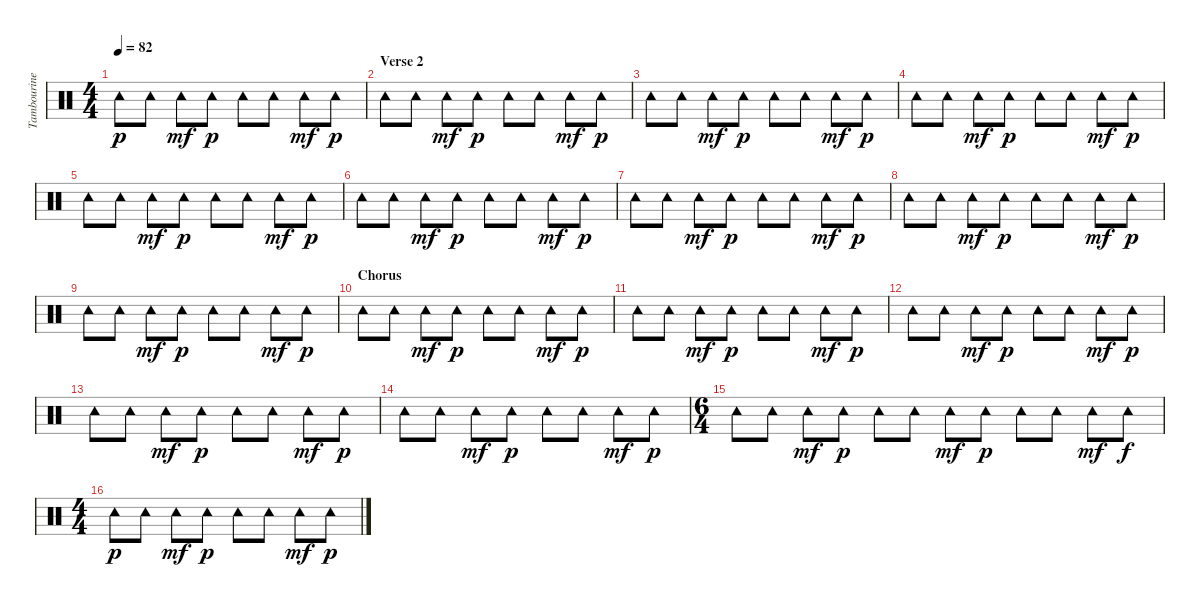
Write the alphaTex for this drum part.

\track ("Tambourine" "Tambourine") {instrument percussion}
\staff {score}
\articulation defaults
\ts (4 4)
\tempo 82
\clef neutral
\ks c "Tambourine (hit)".8{dy p} "Tambourine (hit)".8 "Tambourine (hit)".8{dy mf} "Tambourine (hit)".8{dy p} "Tambourine (hit)".8 "Tambourine (hit)".8 "Tambourine (hit)".8{dy mf} "Tambourine (hit)".8{dy p}
|
\section ("" "Verse 2")
"Tambourine (hit)".8 "Tambourine (hit)".8 "Tambourine (hit)".8{dy mf} "Tambourine (hit)".8{dy p} "Tambourine (hit)".8 "Tambourine (hit)".8 "Tambourine (hit)".8{dy mf} "Tambourine (hit)".8{dy p} |
"Tambourine (hit)".8 "Tambourine (hit)".8 "Tambourine (hit)".8{dy mf} "Tambourine (hit)".8{dy p} "Tambourine (hit)".8 "Tambourine (hit)".8 "Tambourine (hit)".8{dy mf} "Tambourine (hit)".8{dy p} |
"Tambourine (hit)".8 "Tambourine (hit)".8 "Tambourine (hit)".8{dy mf} "Tambourine (hit)".8{dy p} "Tambourine (hit)".8 "Tambourine (hit)".8 "Tambourine (hit)".8{dy mf} "Tambourine (hit)".8{dy p} |
"Tambourine (hit)".8 "Tambourine (hit)".8 "Tambourine (hit)".8{dy mf} "Tambourine (hit)".8{dy p} "Tambourine (hit)".8 "Tambourine (hit)".8 "Tambourine (hit)".8{dy mf} "Tambourine (hit)".8{dy p} |
"Tambourine (hit)".8 "Tambourine (hit)".8 "Tambourine (hit)".8{dy mf} "Tambourine (hit)".8{dy p} "Tambourine (hit)".8 "Tambourine (hit)".8 "Tambourine (hit)".8{dy mf} "Tambourine (hit)".8{dy p} |
"Tambourine (hit)".8 "Tambourine (hit)".8 "Tambourine (hit)".8{dy mf} "Tambourine (hit)".8{dy p} "Tambourine (hit)".8 "Tambourine (hit)".8 "Tambourine (hit)".8{dy mf} "Tambourine (hit)".8{dy p} |
"Tambourine (hit)".8 "Tambourine (hit)".8 "Tambourine (hit)".8{dy mf} "Tambourine (hit)".8{dy p} "Tambourine (hit)".8 "Tambourine (hit)".8 "Tambourine (hit)".8{dy mf} "Tambourine (hit)".8{dy p} |
"Tambourine (hit)".8 "Tambourine (hit)".8 "Tambourine (hit)".8{dy mf} "Tambourine (hit)".8{dy p} "Tambourine (hit)".8 "Tambourine (hit)".8 "Tambourine (hit)".8{dy mf} "Tambourine (hit)".8{dy p} |
\section ("" "Chorus")
"Tambourine (hit)".8 "Tambourine (hit)".8 "Tambourine (hit)".8{dy mf} "Tambourine (hit)".8{dy p} "Tambourine (hit)".8 "Tambourine (hit)".8 "Tambourine (hit)".8{dy mf} "Tambourine (hit)".8{dy p} |
"Tambourine (hit)".8 "Tambourine (hit)".8 "Tambourine (hit)".8{dy mf} "Tambourine (hit)".8{dy p} "Tambourine (hit)".8 "Tambourine (hit)".8 "Tambourine (hit)".8{dy mf} "Tambourine (hit)".8{dy p} |
"Tambourine (hit)".8 "Tambourine (hit)".8 "Tambourine (hit)".8{dy mf} "Tambourine (hit)".8{dy p} "Tambourine (hit)".8 "Tambourine (hit)".8 "Tambourine (hit)".8{dy mf} "Tambourine (hit)".8{dy p} |
"Tambourine (hit)".8 "Tambourine (hit)".8 "Tambourine (hit)".8{dy mf} "Tambourine (hit)".8{dy p} "Tambourine (hit)".8 "Tambourine (hit)".8 "Tambourine (hit)".8{dy mf} "Tambourine (hit)".8{dy p} |
"Tambourine (hit)".8 "Tambourine (hit)".8 "Tambourine (hit)".8{dy mf} "Tambourine (hit)".8{dy p} "Tambourine (hit)".8 "Tambourine (hit)".8 "Tambourine (hit)".8{dy mf} "Tambourine (hit)".8{dy p} |
\ts (6 4)
"Tambourine (hit)".8 "Tambourine (hit)".8 "Tambourine (hit)".8{dy mf} "Tambourine (hit)".8{dy p} "Tambourine (hit)".8 "Tambourine (hit)".8 "Tambourine (hit)".8{dy mf} "Tambourine (hit)".8{dy p} "Tambourine (hit)".8 "Tambourine (hit)".8 "Tambourine (hit)".8{dy mf} "Tambourine (hit)".8{dy f} |
\ts (4 4)
"Tambourine (hit)".8{dy p} "Tambourine (hit)".8 "Tambourine (hit)".8{dy mf} "Tambourine (hit)".8{dy p} "Tambourine (hit)".8 "Tambourine (hit)".8 "Tambourine (hit)".8{dy mf} "Tambourine (hit)".8{dy p}
